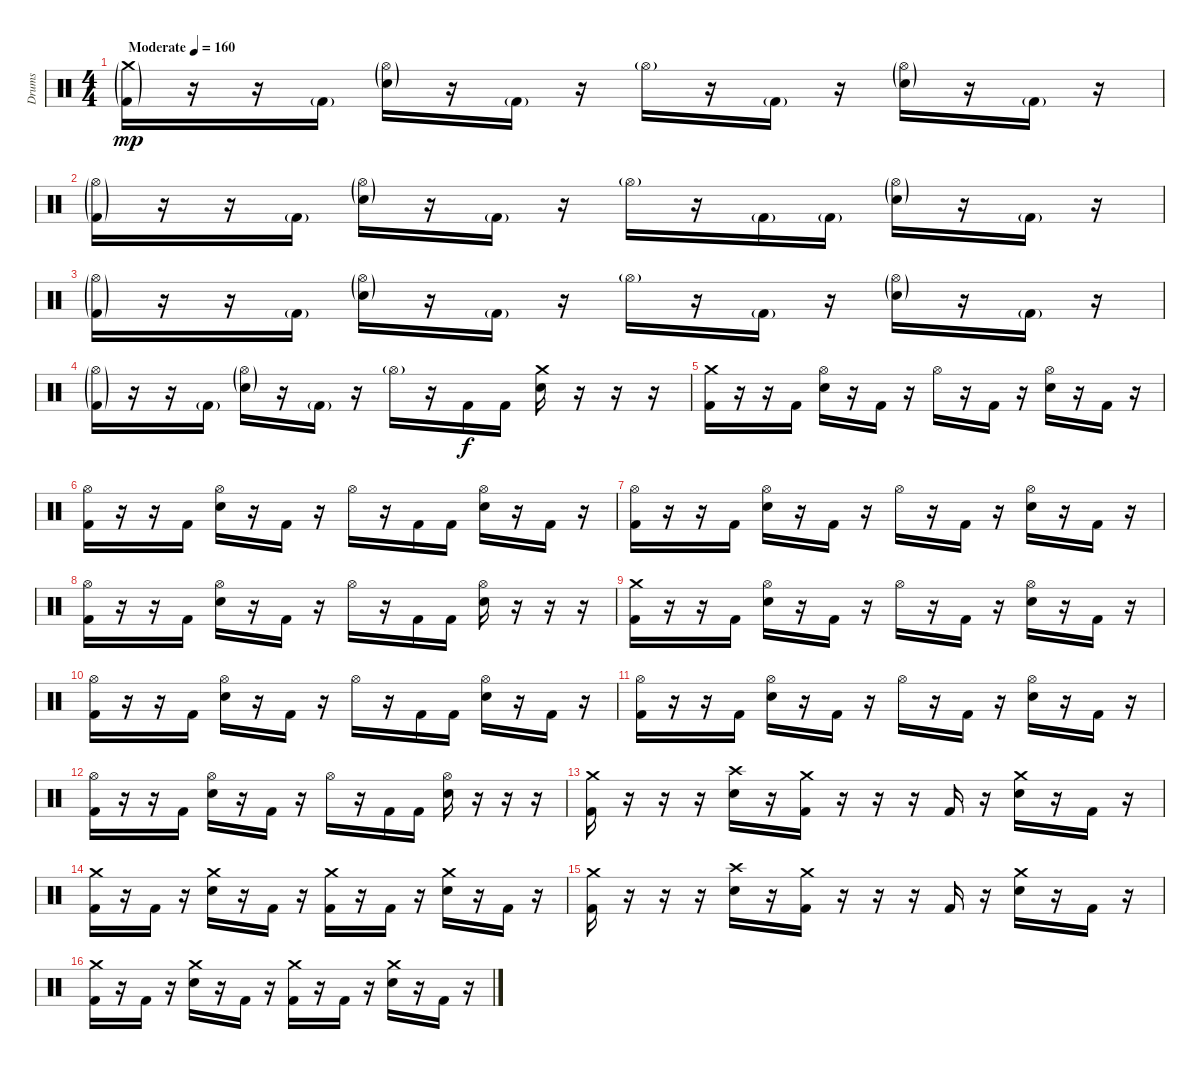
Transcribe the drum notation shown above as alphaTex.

\track ("Drums" "Drums") {instrument percussion}
\staff {score}
\articulation defaults
\ts (4 4)
\tempo (160 "Moderate")
\clef neutral
\ks c
("Crash medium (hit)"{g} "Kick (hit) 2"{g}).16{dy mp} r.16 r.16 "Kick (hit) 2"{g}.16 ("Hi-Hat (open)"{g} "Electric Snare (hit)"{g}).16 r.16 "Kick (hit) 2"{g}.16 r.16 "Hi-Hat (open)"{g}.16 r.16 "Kick (hit) 2"{g}.16 r.16 ("Hi-Hat (open)"{g} "Electric Snare (hit)"{g}).16 r.16 "Kick (hit) 2"{g}.16 r.16 |
("Hi-Hat (open)"{g} "Kick (hit) 2"{g}).16 r.16 r.16 "Kick (hit) 2"{g}.16 ("Hi-Hat (open)"{g} "Electric Snare (hit)"{g}).16 r.16 "Kick (hit) 2"{g}.16 r.16 "Hi-Hat (open)"{g}.16 r.16 "Kick (hit) 2"{g}.16 "Kick (hit) 2"{g}.16 ("Hi-Hat (open)"{g} "Electric Snare (hit)"{g}).16 r.16 "Kick (hit) 2"{g}.16 r.16 |
("Hi-Hat (open)"{g} "Kick (hit) 2"{g}).16 r.16 r.16 "Kick (hit) 2"{g}.16 ("Hi-Hat (open)"{g} "Electric Snare (hit)"{g}).16 r.16 "Kick (hit) 2"{g}.16 r.16 "Hi-Hat (open)"{g}.16 r.16 "Kick (hit) 2"{g}.16 r.16 ("Hi-Hat (open)"{g} "Electric Snare (hit)"{g}).16 r.16 "Kick (hit) 2"{g}.16 r.16 |
("Hi-Hat (open)"{g} "Kick (hit) 2"{g}).16 r.16 r.16 "Kick (hit) 2"{g}.16 ("Hi-Hat (open)"{g} "Electric Snare (hit)"{g}).16 r.16 "Kick (hit) 2"{g}.16 r.16 "Hi-Hat (open)"{g}.16 r.16 "Kick (hit) 2".16{dy f} "Kick (hit) 2".16 ("Crash medium (hit)" "Electric Snare (hit)").16 r.16 r.16 r.16 |
("Crash medium (hit)" "Kick (hit) 2").16 r.16 r.16 "Kick (hit) 2".16 ("Hi-Hat (open)" "Electric Snare (hit)").16 r.16 "Kick (hit) 2".16 r.16 "Hi-Hat (open)".16 r.16 "Kick (hit) 2".16 r.16 ("Hi-Hat (open)" "Electric Snare (hit)").16 r.16 "Kick (hit) 2".16 r.16 |
("Hi-Hat (open)" "Kick (hit) 2").16 r.16 r.16 "Kick (hit) 2".16 ("Hi-Hat (open)" "Electric Snare (hit)").16 r.16 "Kick (hit) 2".16 r.16 "Hi-Hat (open)".16 r.16 "Kick (hit) 2".16 "Kick (hit) 2".16 ("Hi-Hat (open)" "Electric Snare (hit)").16 r.16 "Kick (hit) 2".16 r.16 |
("Hi-Hat (open)" "Kick (hit) 2").16 r.16 r.16 "Kick (hit) 2".16 ("Hi-Hat (open)" "Electric Snare (hit)").16 r.16 "Kick (hit) 2".16 r.16 "Hi-Hat (open)".16 r.16 "Kick (hit) 2".16 r.16 ("Hi-Hat (open)" "Electric Snare (hit)").16 r.16 "Kick (hit) 2".16 r.16 |
("Hi-Hat (open)" "Kick (hit) 2").16 r.16 r.16 "Kick (hit) 2".16 ("Hi-Hat (open)" "Electric Snare (hit)").16 r.16 "Kick (hit) 2".16 r.16 "Hi-Hat (open)".16 r.16 "Kick (hit) 2".16 "Kick (hit) 2".16 ("Hi-Hat (open)" "Electric Snare (hit)").16 r.16 r.16 r.16 |
("Crash medium (hit)" "Kick (hit) 2").16 r.16 r.16 "Kick (hit) 2".16 ("Hi-Hat (open)" "Electric Snare (hit)").16 r.16 "Kick (hit) 2".16 r.16 "Hi-Hat (open)".16 r.16 "Kick (hit) 2".16 r.16 ("Hi-Hat (open)" "Electric Snare (hit)").16 r.16 "Kick (hit) 2".16 r.16 |
("Hi-Hat (open)" "Kick (hit) 2").16 r.16 r.16 "Kick (hit) 2".16 ("Hi-Hat (open)" "Electric Snare (hit)").16 r.16 "Kick (hit) 2".16 r.16 "Hi-Hat (open)".16 r.16 "Kick (hit) 2".16 "Kick (hit) 2".16 ("Hi-Hat (open)" "Electric Snare (hit)").16 r.16 "Kick (hit) 2".16 r.16 |
("Hi-Hat (open)" "Kick (hit) 2").16 r.16 r.16 "Kick (hit) 2".16 ("Hi-Hat (open)" "Electric Snare (hit)").16 r.16 "Kick (hit) 2".16 r.16 "Hi-Hat (open)".16 r.16 "Kick (hit) 2".16 r.16 ("Hi-Hat (open)" "Electric Snare (hit)").16 r.16 "Kick (hit) 2".16 r.16 |
("Hi-Hat (open)" "Kick (hit) 2").16 r.16 r.16 "Kick (hit) 2".16 ("Hi-Hat (open)" "Electric Snare (hit)").16 r.16 "Kick (hit) 2".16 r.16 "Hi-Hat (open)".16 r.16 "Kick (hit) 2".16 "Kick (hit) 2".16 ("Hi-Hat (open)" "Electric Snare (hit)").16 r.16 r.16 r.16 |
("Crash medium (hit)" "Kick (hit) 2").16 r.16 r.16 r.16 ("Crash high (hit)" "Electric Snare (hit)").16 r.16 ("Crash medium (hit)" "Kick (hit) 2").16 r.16 r.16 r.16 "Kick (hit) 2".16 r.16 ("Crash medium (hit)" "Electric Snare (hit)").16 r.16 "Kick (hit) 2".16 r.16 |
("Crash medium (hit)" "Kick (hit) 2").16 r.16 "Kick (hit) 2".16 r.16 ("Crash medium (hit)" "Electric Snare (hit)").16 r.16 "Kick (hit) 2".16 r.16 ("Crash medium (hit)" "Kick (hit) 2").16 r.16 "Kick (hit) 2".16 r.16 ("Crash medium (hit)" "Electric Snare (hit)").16 r.16 "Kick (hit) 2".16 r.16 |
("Crash medium (hit)" "Kick (hit) 2").16 r.16 r.16 r.16 ("Crash high (hit)" "Electric Snare (hit)").16 r.16 ("Crash medium (hit)" "Kick (hit) 2").16 r.16 r.16 r.16 "Kick (hit) 2".16 r.16 ("Crash medium (hit)" "Electric Snare (hit)").16 r.16 "Kick (hit) 2".16 r.16 |
("Crash medium (hit)" "Kick (hit) 2").16 r.16 "Kick (hit) 2".16 r.16 ("Crash medium (hit)" "Electric Snare (hit)").16 r.16 "Kick (hit) 2".16 r.16 ("Crash medium (hit)" "Kick (hit) 2").16 r.16 "Kick (hit) 2".16 r.16 ("Crash medium (hit)" "Electric Snare (hit)").16 r.16 "Kick (hit) 2".16 r.16
